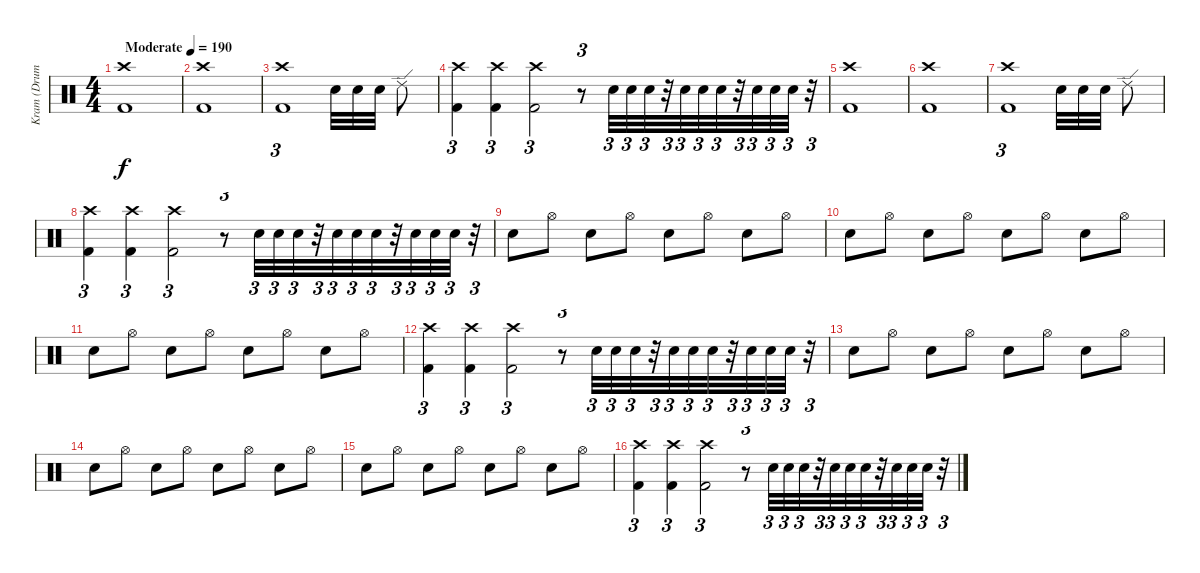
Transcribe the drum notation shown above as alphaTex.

\track ("Kram (Drums)" "Kram (Drum") {instrument percussion}
\staff {score}
\articulation defaults
\ts (4 4)
\tempo (190 "Moderate")
\clef neutral
\ks c
("Kick (hit) 2" "Crash high (hit)").1{dy f} |
("Kick (hit) 2" "Crash high (hit)").1 |
("Kick (hit) 2" "Crash high (hit)").1{tu (3 2)} "Snare (hit) 2".32 "Snare (hit) 2".32 "Snare (hit) 2".32 "Ride (edge) 2".8 |
("Kick (hit) 2" "Crash high (hit)").4{tu (3 2)} ("Kick (hit) 2" "Crash high (hit)").4{tu (3 2)} ("Kick (hit) 2" "Crash high (hit)").2{tu (3 2)} r.8{tu (3 2)} "Snare (hit) 2".32{tu (3 2)} "Snare (hit) 2".32{tu (3 2)} "Snare (hit) 2".32{tu (3 2)} r.32{tu (3 2)} "Snare (hit) 2".32{tu (3 2)} "Snare (hit) 2".32{tu (3 2)} "Snare (hit) 2".32{tu (3 2)} r.32{tu (3 2)} "Snare (hit) 2".32{tu (3 2)} "Snare (hit) 2".32{tu (3 2)} "Snare (hit) 2".32{tu (3 2)} r.32{tu (3 2)} |
("Kick (hit) 2" "Crash high (hit)").1 |
("Kick (hit) 2" "Crash high (hit)").1 |
("Kick (hit) 2" "Crash high (hit)").1{tu (3 2)} "Snare (hit) 2".32 "Snare (hit) 2".32 "Snare (hit) 2".32 "Ride (edge) 2".8 |
("Kick (hit) 2" "Crash high (hit)").4{tu (3 2)} ("Kick (hit) 2" "Crash high (hit)").4{tu (3 2)} ("Kick (hit) 2" "Crash high (hit)").2{tu (3 2)} r.8{tu (3 2)} "Snare (hit) 2".32{tu (3 2)} "Snare (hit) 2".32{tu (3 2)} "Snare (hit) 2".32{tu (3 2)} r.32{tu (3 2)} "Snare (hit) 2".32{tu (3 2)} "Snare (hit) 2".32{tu (3 2)} "Snare (hit) 2".32{tu (3 2)} r.32{tu (3 2)} "Snare (hit) 2".32{tu (3 2)} "Snare (hit) 2".32{tu (3 2)} "Snare (hit) 2".32{tu (3 2)} r.32{tu (3 2)} |
"Snare (hit) 2".8 "Hi-Hat (open)".8 "Snare (hit) 2".8 "Hi-Hat (open)".8 "Snare (hit) 2".8 "Hi-Hat (open)".8 "Snare (hit) 2".8 "Hi-Hat (open)".8 |
"Snare (hit) 2".8 "Hi-Hat (open)".8 "Snare (hit) 2".8 "Hi-Hat (open)".8 "Snare (hit) 2".8 "Hi-Hat (open)".8 "Snare (hit) 2".8 "Hi-Hat (open)".8 |
"Snare (hit) 2".8 "Hi-Hat (open)".8 "Snare (hit) 2".8 "Hi-Hat (open)".8 "Snare (hit) 2".8 "Hi-Hat (open)".8 "Snare (hit) 2".8 "Hi-Hat (open)".8 |
("Kick (hit) 2" "Crash high (hit)").4{tu (3 2)} ("Kick (hit) 2" "Crash high (hit)").4{tu (3 2)} ("Kick (hit) 2" "Crash high (hit)").2{tu (3 2)} r.8{tu (3 2)} "Snare (hit) 2".32{tu (3 2)} "Snare (hit) 2".32{tu (3 2)} "Snare (hit) 2".32{tu (3 2)} r.32{tu (3 2)} "Snare (hit) 2".32{tu (3 2)} "Snare (hit) 2".32{tu (3 2)} "Snare (hit) 2".32{tu (3 2)} r.32{tu (3 2)} "Snare (hit) 2".32{tu (3 2)} "Snare (hit) 2".32{tu (3 2)} "Snare (hit) 2".32{tu (3 2)} r.32{tu (3 2)} |
"Snare (hit) 2".8 "Hi-Hat (open)".8 "Snare (hit) 2".8 "Hi-Hat (open)".8 "Snare (hit) 2".8 "Hi-Hat (open)".8 "Snare (hit) 2".8 "Hi-Hat (open)".8 |
"Snare (hit) 2".8 "Hi-Hat (open)".8 "Snare (hit) 2".8 "Hi-Hat (open)".8 "Snare (hit) 2".8 "Hi-Hat (open)".8 "Snare (hit) 2".8 "Hi-Hat (open)".8 |
"Snare (hit) 2".8 "Hi-Hat (open)".8 "Snare (hit) 2".8 "Hi-Hat (open)".8 "Snare (hit) 2".8 "Hi-Hat (open)".8 "Snare (hit) 2".8 "Hi-Hat (open)".8 |
("Kick (hit) 2" "Crash high (hit)").4{tu (3 2)} ("Kick (hit) 2" "Crash high (hit)").4{tu (3 2)} ("Kick (hit) 2" "Crash high (hit)").2{tu (3 2)} r.8{tu (3 2)} "Snare (hit) 2".32{tu (3 2)} "Snare (hit) 2".32{tu (3 2)} "Snare (hit) 2".32{tu (3 2)} r.32{tu (3 2)} "Snare (hit) 2".32{tu (3 2)} "Snare (hit) 2".32{tu (3 2)} "Snare (hit) 2".32{tu (3 2)} r.32{tu (3 2)} "Snare (hit) 2".32{tu (3 2)} "Snare (hit) 2".32{tu (3 2)} "Snare (hit) 2".32{tu (3 2)} r.32{tu (3 2)}
